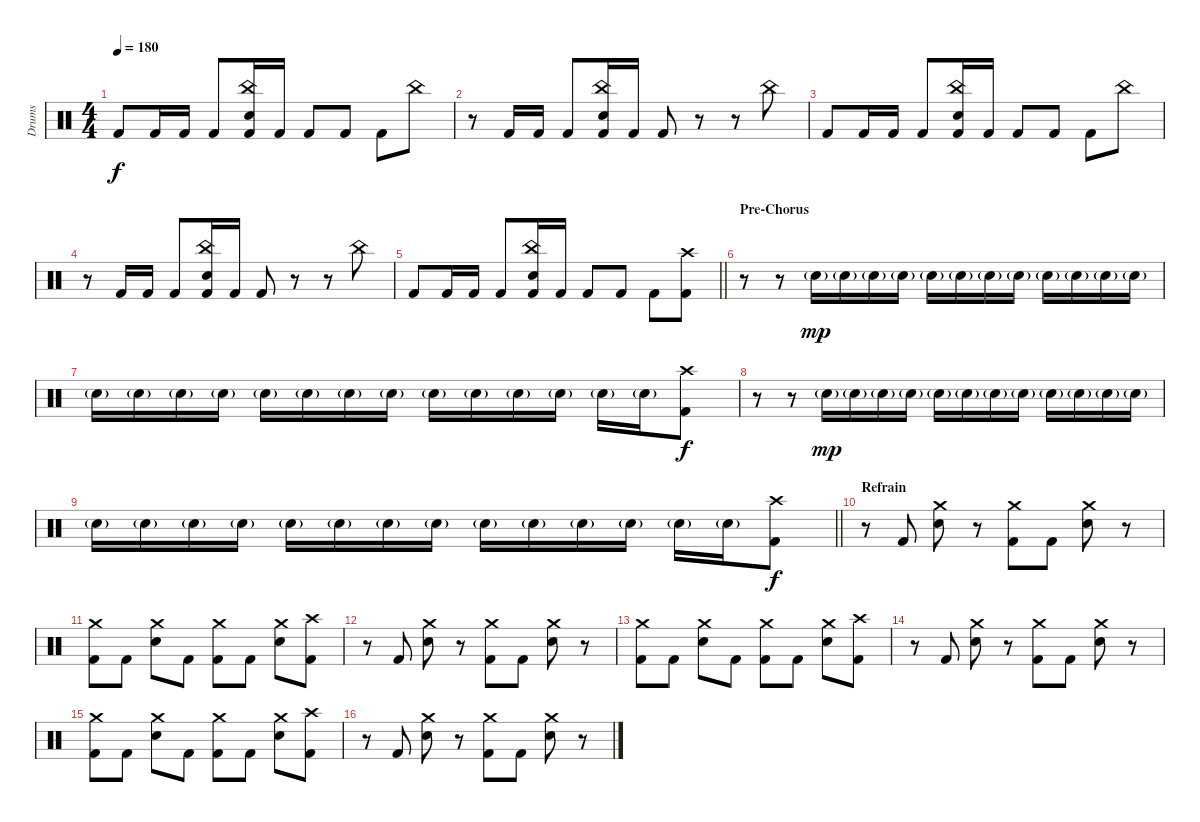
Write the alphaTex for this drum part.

\track ("Drums" "Drums") {instrument percussion}
\staff {score}
\articulation defaults
\ts (4 4)
\tempo 180
\clef neutral
\ks c "Kick (hit) 2".8{dy f} "Kick (hit) 2".16 "Kick (hit) 2".16 "Kick (hit) 2".8
("China (hit)" "Snare (hit) 2" "Kick (hit) 2").16 "Kick (hit) 2".16 "Kick (hit) 2".8 "Kick (hit) 2".8 "Kick (hit) 2".8 "China (hit)".8 |
r.8 "Kick (hit) 2".16 "Kick (hit) 2".16 "Kick (hit) 2".8 ("China (hit)" "Snare (hit) 2" "Kick (hit) 2").16 "Kick (hit) 2".16 "Kick (hit) 2".8 r.8 r.8 "China (hit)".8 |
"Kick (hit) 2".8 "Kick (hit) 2".16 "Kick (hit) 2".16 "Kick (hit) 2".8 ("China (hit)" "Snare (hit) 2" "Kick (hit) 2").16 "Kick (hit) 2".16 "Kick (hit) 2".8 "Kick (hit) 2".8 "Kick (hit) 2".8 "China (hit)".8 |
r.8 "Kick (hit) 2".16 "Kick (hit) 2".16 "Kick (hit) 2".8 ("China (hit)" "Snare (hit) 2" "Kick (hit) 2").16 "Kick (hit) 2".16 "Kick (hit) 2".8 r.8 r.8 "China (hit)".8 |
\barLineRight lightlight "Kick (hit) 2".8 "Kick (hit) 2".16 "Kick (hit) 2".16 "Kick (hit) 2".8
("China (hit)" "Snare (hit) 2" "Kick (hit) 2").16 "Kick (hit) 2".16 "Kick (hit) 2".8 "Kick (hit) 2".8 "Kick (hit) 2".8 ("Crash high (hit)" "Kick (hit) 2").8 |
\section ("" "Pre-Chorus")
r.8 r.8 "Snare (hit) 2"{g}.16{dy mp} "Snare (hit) 2"{g}.16 "Snare (hit) 2"{g}.16 "Snare (hit) 2"{g}.16 "Snare (hit) 2"{g}.16 "Snare (hit) 2"{g}.16 "Snare (hit) 2"{g}.16 "Snare (hit) 2"{g}.16 "Snare (hit) 2"{g}.16 "Snare (hit) 2"{g}.16 "Snare (hit) 2"{g}.16 "Snare (hit) 2"{g}.16 |
"Snare (hit) 2"{g}.16 "Snare (hit) 2"{g}.16 "Snare (hit) 2"{g}.16 "Snare (hit) 2"{g}.16 "Snare (hit) 2"{g}.16 "Snare (hit) 2"{g}.16 "Snare (hit) 2"{g}.16 "Snare (hit) 2"{g}.16 "Snare (hit) 2"{g}.16 "Snare (hit) 2"{g}.16 "Snare (hit) 2"{g}.16 "Snare (hit) 2"{g}.16 "Snare (hit) 2"{g}.16 "Snare (hit) 2"{g}.16 ("Crash high (hit)" "Kick (hit) 2").8{dy f} |
r.8 r.8 "Snare (hit) 2"{g}.16{dy mp} "Snare (hit) 2"{g}.16 "Snare (hit) 2"{g}.16 "Snare (hit) 2"{g}.16 "Snare (hit) 2"{g}.16 "Snare (hit) 2"{g}.16 "Snare (hit) 2"{g}.16 "Snare (hit) 2"{g}.16 "Snare (hit) 2"{g}.16 "Snare (hit) 2"{g}.16 "Snare (hit) 2"{g}.16 "Snare (hit) 2"{g}.16 |
\barLineRight lightlight "Snare (hit) 2"{g}.16 "Snare (hit) 2"{g}.16 "Snare (hit) 2"{g}.16 "Snare (hit) 2"{g}.16 "Snare (hit) 2"{g}.16 "Snare (hit) 2"{g}.16 "Snare (hit) 2"{g}.16 "Snare (hit) 2"{g}.16 "Snare (hit) 2"{g}.16 "Snare (hit) 2"{g}.16 "Snare (hit) 2"{g}.16 "Snare (hit) 2"{g}.16 "Snare (hit) 2"{g}.16 "Snare (hit) 2"{g}.16
("Crash high (hit)" "Kick (hit) 2").8{dy f} |
\section ("" "Refrain")
r.8 "Kick (hit) 2".8 ("Crash medium (hit)" "Snare (hit) 2").8 r.8 ("Crash medium (hit)" "Kick (hit) 2").8 "Kick (hit) 2".8 ("Crash medium (hit)" "Snare (hit) 2").8 r.8 |
("Crash medium (hit)" "Kick (hit) 2").8 "Kick (hit) 2".8 ("Crash medium (hit)" "Snare (hit) 2").8 "Kick (hit) 2".8 ("Crash medium (hit)" "Kick (hit) 2").8 "Kick (hit) 2".8 ("Crash medium (hit)" "Snare (hit) 2").8 ("Crash high (hit)" "Kick (hit) 2").8 |
r.8 "Kick (hit) 2".8 ("Crash medium (hit)" "Snare (hit) 2").8 r.8 ("Crash medium (hit)" "Kick (hit) 2").8 "Kick (hit) 2".8 ("Crash medium (hit)" "Snare (hit) 2").8 r.8 |
("Crash medium (hit)" "Kick (hit) 2").8 "Kick (hit) 2".8 ("Crash medium (hit)" "Snare (hit) 2").8 "Kick (hit) 2".8 ("Crash medium (hit)" "Kick (hit) 2").8 "Kick (hit) 2".8 ("Crash medium (hit)" "Snare (hit) 2").8 ("Crash high (hit)" "Kick (hit) 2").8 |
r.8 "Kick (hit) 2".8 ("Crash medium (hit)" "Snare (hit) 2").8 r.8 ("Crash medium (hit)" "Kick (hit) 2").8 "Kick (hit) 2".8 ("Crash medium (hit)" "Snare (hit) 2").8 r.8 |
("Crash medium (hit)" "Kick (hit) 2").8 "Kick (hit) 2".8 ("Crash medium (hit)" "Snare (hit) 2").8 "Kick (hit) 2".8 ("Crash medium (hit)" "Kick (hit) 2").8 "Kick (hit) 2".8 ("Crash medium (hit)" "Snare (hit) 2").8 ("Crash high (hit)" "Kick (hit) 2").8 |
r.8 "Kick (hit) 2".8 ("Crash medium (hit)" "Snare (hit) 2").8 r.8 ("Crash medium (hit)" "Kick (hit) 2").8 "Kick (hit) 2".8 ("Crash medium (hit)" "Snare (hit) 2").8 r.8
